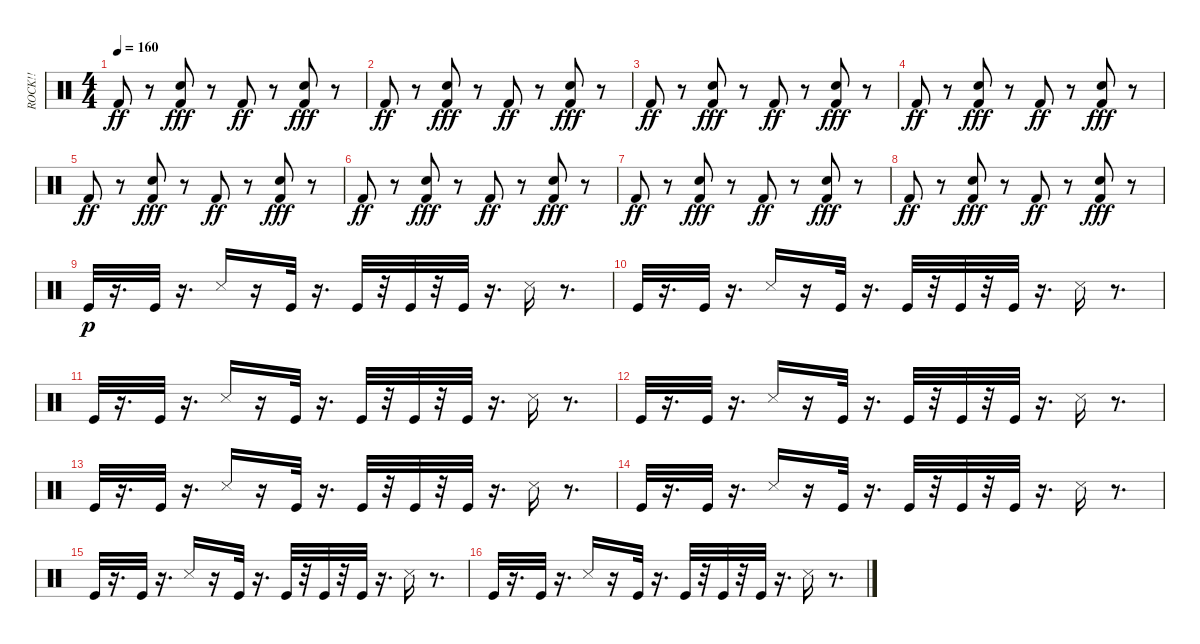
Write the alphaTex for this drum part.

\track ("ROCK!!" "ROCK!!") {instrument percussion}
\staff {score}
\articulation defaults
\ts (4 4)
\tempo 160
\clef neutral
\ks c "Kick (hit) 2".8{dy ff}
r.8 ("Kick (hit) 2" "Electric Snare (hit)").8{dy fff} r.8 "Kick (hit) 2".8{dy ff} r.8 ("Kick (hit) 2" "Electric Snare (hit)").8{dy fff} r.8 |
"Kick (hit) 2".8{dy ff} r.8 ("Kick (hit) 2" "Electric Snare (hit)").8{dy fff} r.8 "Kick (hit) 2".8{dy ff} r.8 ("Kick (hit) 2" "Electric Snare (hit)").8{dy fff} r.8 |
"Kick (hit) 2".8{dy ff} r.8 ("Kick (hit) 2" "Electric Snare (hit)").8{dy fff} r.8 "Kick (hit) 2".8{dy ff} r.8 ("Kick (hit) 2" "Electric Snare (hit)").8{dy fff} r.8 |
"Kick (hit) 2".8{dy ff} r.8 ("Kick (hit) 2" "Electric Snare (hit)").8{dy fff} r.8 "Kick (hit) 2".8{dy ff} r.8 ("Kick (hit) 2" "Electric Snare (hit)").8{dy fff} r.8 |
"Kick (hit) 2".8{dy ff} r.8 ("Kick (hit) 2" "Electric Snare (hit)").8{dy fff} r.8 "Kick (hit) 2".8{dy ff} r.8 ("Kick (hit) 2" "Electric Snare (hit)").8{dy fff} r.8 |
"Kick (hit) 2".8{dy ff} r.8 ("Kick (hit) 2" "Electric Snare (hit)").8{dy fff} r.8 "Kick (hit) 2".8{dy ff} r.8 ("Kick (hit) 2" "Electric Snare (hit)").8{dy fff} r.8 |
"Kick (hit) 2".8{dy ff} r.8 ("Kick (hit) 2" "Electric Snare (hit)").8{dy fff} r.8 "Kick (hit) 2".8{dy ff} r.8 ("Kick (hit) 2" "Electric Snare (hit)").8{dy fff} r.8 |
"Kick (hit) 2".8{dy ff} r.8 ("Kick (hit) 2" "Electric Snare (hit)").8{dy fff} r.8 "Kick (hit) 2".8{dy ff} r.8 ("Kick (hit) 2" "Electric Snare (hit)").8{dy fff} r.8 |
"Kick (hit)".32{dy p} r.16{d} "Kick (hit)".32 r.16{d} "Snare (side stick) 3".16 r.16 "Kick (hit)".32 r.16{d} "Kick (hit)".32 r.32 "Kick (hit)".32 r.32 "Kick (hit)".32 r.16{d} "Snare (side stick) 3".16 r.8{d} |
"Kick (hit)".32 r.16{d} "Kick (hit)".32 r.16{d} "Snare (side stick) 3".16 r.16 "Kick (hit)".32 r.16{d} "Kick (hit)".32 r.32 "Kick (hit)".32 r.32 "Kick (hit)".32 r.16{d} "Snare (side stick) 3".16 r.8{d} |
"Kick (hit)".32 r.16{d} "Kick (hit)".32 r.16{d} "Snare (side stick) 3".16 r.16 "Kick (hit)".32 r.16{d} "Kick (hit)".32 r.32 "Kick (hit)".32 r.32 "Kick (hit)".32 r.16{d} "Snare (side stick) 3".16 r.8{d} |
"Kick (hit)".32 r.16{d} "Kick (hit)".32 r.16{d} "Snare (side stick) 3".16 r.16 "Kick (hit)".32 r.16{d} "Kick (hit)".32 r.32 "Kick (hit)".32 r.32 "Kick (hit)".32 r.16{d} "Snare (side stick) 3".16 r.8{d} |
"Kick (hit)".32 r.16{d} "Kick (hit)".32 r.16{d} "Snare (side stick) 3".16 r.16 "Kick (hit)".32 r.16{d} "Kick (hit)".32 r.32 "Kick (hit)".32 r.32 "Kick (hit)".32 r.16{d} "Snare (side stick) 3".16 r.8{d} |
"Kick (hit)".32 r.16{d} "Kick (hit)".32 r.16{d} "Snare (side stick) 3".16 r.16 "Kick (hit)".32 r.16{d} "Kick (hit)".32 r.32 "Kick (hit)".32 r.32 "Kick (hit)".32 r.16{d} "Snare (side stick) 3".16 r.8{d} |
"Kick (hit)".32 r.16{d} "Kick (hit)".32 r.16{d} "Snare (side stick) 3".16 r.16 "Kick (hit)".32 r.16{d} "Kick (hit)".32 r.32 "Kick (hit)".32 r.32 "Kick (hit)".32 r.16{d} "Snare (side stick) 3".16 r.8{d} |
"Kick (hit)".32 r.16{d} "Kick (hit)".32 r.16{d} "Snare (side stick) 3".16 r.16 "Kick (hit)".32 r.16{d} "Kick (hit)".32 r.32 "Kick (hit)".32 r.32 "Kick (hit)".32 r.16{d} "Snare (side stick) 3".16 r.8{d}
